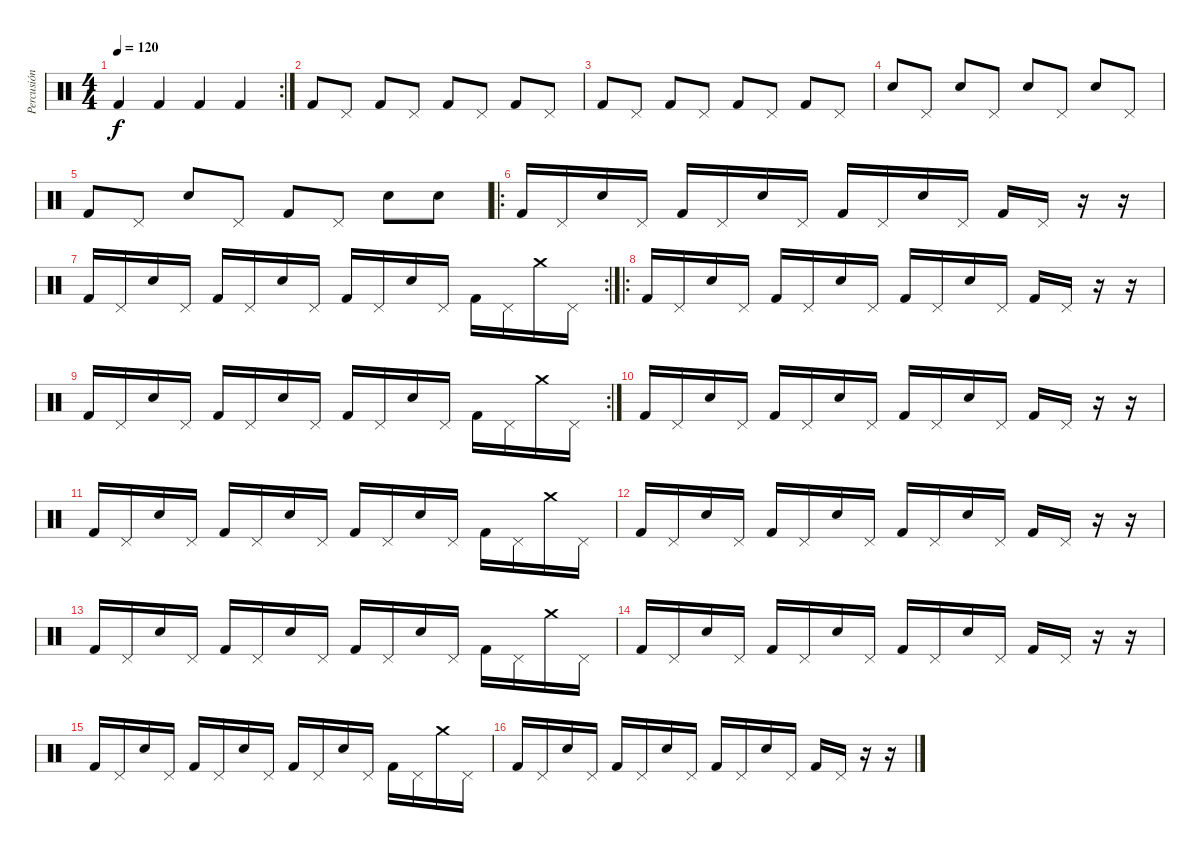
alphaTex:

\track ("Percusión" "Percusión") {instrument percussion}
\staff {score}
\articulation defaults
\rc 2
\ts (4 4)
\tempo 120
\clef neutral
\ks c "Kick (hit) 2".4{dy f} "Kick (hit) 2".4 "Kick (hit) 2".4 "Kick (hit) 2".4
|
"Kick (hit) 2".8 "Pedal Hi-Hat (hit)".8 "Kick (hit) 2".8 "Pedal Hi-Hat (hit)".8 "Kick (hit) 2".8 "Pedal Hi-Hat (hit)".8 "Kick (hit) 2".8 "Pedal Hi-Hat (hit)".8 |
"Kick (hit) 2".8 "Pedal Hi-Hat (hit)".8 "Kick (hit) 2".8 "Pedal Hi-Hat (hit)".8 "Kick (hit) 2".8 "Pedal Hi-Hat (hit)".8 "Kick (hit) 2".8 "Pedal Hi-Hat (hit)".8 |
"Snare (hit) 2".8 "Pedal Hi-Hat (hit)".8 "Snare (hit) 2".8 "Pedal Hi-Hat (hit)".8 "Snare (hit) 2".8 "Pedal Hi-Hat (hit)".8 "Snare (hit) 2".8 "Pedal Hi-Hat (hit)".8 |
"Kick (hit) 2".8 "Pedal Hi-Hat (hit)".8 "Snare (hit) 2".8 "Pedal Hi-Hat (hit)".8 "Kick (hit) 2".8 "Pedal Hi-Hat (hit)".8 "Snare (hit) 2".8 "Snare (hit) 2".8 |
\ro "Kick (hit) 2".16 "Pedal Hi-Hat (hit)".16 "Snare (hit) 2".16 "Pedal Hi-Hat (hit)".16 "Kick (hit) 2".16 "Pedal Hi-Hat (hit)".16 "Snare (hit) 2".16 "Pedal Hi-Hat (hit)".16 "Kick (hit) 2".16 "Pedal Hi-Hat (hit)".16 "Snare (hit) 2".16 "Pedal Hi-Hat (hit)".16 "Kick (hit) 2".16 "Pedal Hi-Hat (hit)".16
r.16 r.16 |
\rc 2 "Kick (hit) 2".16 "Pedal Hi-Hat (hit)".16 "Snare (hit) 2".16 "Pedal Hi-Hat (hit)".16 "Kick (hit) 2".16 "Pedal Hi-Hat (hit)".16 "Snare (hit) 2".16 "Pedal Hi-Hat (hit)".16 "Kick (hit) 2".16 "Pedal Hi-Hat (hit)".16 "Snare (hit) 2".16 "Pedal Hi-Hat (hit)".16 "Kick (hit) 2".16 "Pedal Hi-Hat (hit)".16 "Crash medium (hit)".16 "Pedal Hi-Hat (hit)".16
|
\ro "Kick (hit) 2".16 "Pedal Hi-Hat (hit)".16 "Snare (hit) 2".16 "Pedal Hi-Hat (hit)".16 "Kick (hit) 2".16 "Pedal Hi-Hat (hit)".16 "Snare (hit) 2".16 "Pedal Hi-Hat (hit)".16 "Kick (hit) 2".16 "Pedal Hi-Hat (hit)".16 "Snare (hit) 2".16 "Pedal Hi-Hat (hit)".16 "Kick (hit) 2".16 "Pedal Hi-Hat (hit)".16
r.16 r.16 |
\rc 2 "Kick (hit) 2".16 "Pedal Hi-Hat (hit)".16 "Snare (hit) 2".16 "Pedal Hi-Hat (hit)".16 "Kick (hit) 2".16 "Pedal Hi-Hat (hit)".16 "Snare (hit) 2".16 "Pedal Hi-Hat (hit)".16 "Kick (hit) 2".16 "Pedal Hi-Hat (hit)".16 "Snare (hit) 2".16 "Pedal Hi-Hat (hit)".16 "Kick (hit) 2".16 "Pedal Hi-Hat (hit)".16 "Crash medium (hit)".16 "Pedal Hi-Hat (hit)".16
|
"Kick (hit) 2".16 "Pedal Hi-Hat (hit)".16 "Snare (hit) 2".16 "Pedal Hi-Hat (hit)".16 "Kick (hit) 2".16 "Pedal Hi-Hat (hit)".16 "Snare (hit) 2".16 "Pedal Hi-Hat (hit)".16 "Kick (hit) 2".16 "Pedal Hi-Hat (hit)".16 "Snare (hit) 2".16 "Pedal Hi-Hat (hit)".16 "Kick (hit) 2".16 "Pedal Hi-Hat (hit)".16 r.16 r.16 |
"Kick (hit) 2".16 "Pedal Hi-Hat (hit)".16 "Snare (hit) 2".16 "Pedal Hi-Hat (hit)".16 "Kick (hit) 2".16 "Pedal Hi-Hat (hit)".16 "Snare (hit) 2".16 "Pedal Hi-Hat (hit)".16 "Kick (hit) 2".16 "Pedal Hi-Hat (hit)".16 "Snare (hit) 2".16 "Pedal Hi-Hat (hit)".16 "Kick (hit) 2".16 "Pedal Hi-Hat (hit)".16 "Crash medium (hit)".16 "Pedal Hi-Hat (hit)".16 |
"Kick (hit) 2".16 "Pedal Hi-Hat (hit)".16 "Snare (hit) 2".16 "Pedal Hi-Hat (hit)".16 "Kick (hit) 2".16 "Pedal Hi-Hat (hit)".16 "Snare (hit) 2".16 "Pedal Hi-Hat (hit)".16 "Kick (hit) 2".16 "Pedal Hi-Hat (hit)".16 "Snare (hit) 2".16 "Pedal Hi-Hat (hit)".16 "Kick (hit) 2".16 "Pedal Hi-Hat (hit)".16 r.16 r.16 |
"Kick (hit) 2".16 "Pedal Hi-Hat (hit)".16 "Snare (hit) 2".16 "Pedal Hi-Hat (hit)".16 "Kick (hit) 2".16 "Pedal Hi-Hat (hit)".16 "Snare (hit) 2".16 "Pedal Hi-Hat (hit)".16 "Kick (hit) 2".16 "Pedal Hi-Hat (hit)".16 "Snare (hit) 2".16 "Pedal Hi-Hat (hit)".16 "Kick (hit) 2".16 "Pedal Hi-Hat (hit)".16 "Crash medium (hit)".16 "Pedal Hi-Hat (hit)".16 |
"Kick (hit) 2".16 "Pedal Hi-Hat (hit)".16 "Snare (hit) 2".16 "Pedal Hi-Hat (hit)".16 "Kick (hit) 2".16 "Pedal Hi-Hat (hit)".16 "Snare (hit) 2".16 "Pedal Hi-Hat (hit)".16 "Kick (hit) 2".16 "Pedal Hi-Hat (hit)".16 "Snare (hit) 2".16 "Pedal Hi-Hat (hit)".16 "Kick (hit) 2".16 "Pedal Hi-Hat (hit)".16 r.16 r.16 |
"Kick (hit) 2".16 "Pedal Hi-Hat (hit)".16 "Snare (hit) 2".16 "Pedal Hi-Hat (hit)".16 "Kick (hit) 2".16 "Pedal Hi-Hat (hit)".16 "Snare (hit) 2".16 "Pedal Hi-Hat (hit)".16 "Kick (hit) 2".16 "Pedal Hi-Hat (hit)".16 "Snare (hit) 2".16 "Pedal Hi-Hat (hit)".16 "Kick (hit) 2".16 "Pedal Hi-Hat (hit)".16 "Crash medium (hit)".16 "Pedal Hi-Hat (hit)".16 |
"Kick (hit) 2".16 "Pedal Hi-Hat (hit)".16 "Snare (hit) 2".16 "Pedal Hi-Hat (hit)".16 "Kick (hit) 2".16 "Pedal Hi-Hat (hit)".16 "Snare (hit) 2".16 "Pedal Hi-Hat (hit)".16 "Kick (hit) 2".16 "Pedal Hi-Hat (hit)".16 "Snare (hit) 2".16 "Pedal Hi-Hat (hit)".16 "Kick (hit) 2".16 "Pedal Hi-Hat (hit)".16 r.16 r.16
